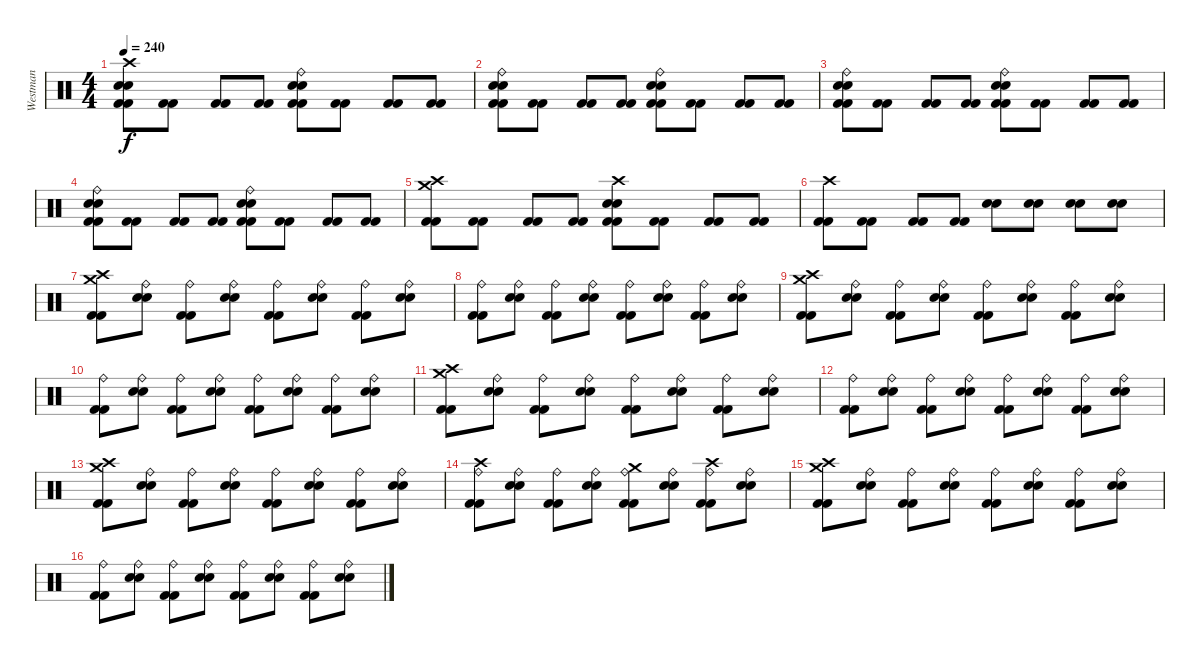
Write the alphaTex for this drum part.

\track ("Westman" "Westman") {instrument percussion}
\staff {score}
\articulation defaults
\ts (4 4)
\tempo 240
\clef neutral
\ks c
("Kick (hit) 2" "Kick (hit) 2" "Electric Snare (hit)" "Snare (hit) 2" "Crash high (hit)").8{dy f} ("Kick (hit) 2" "Kick (hit) 2").8 ("Kick (hit) 2" "Kick (hit) 2").8 ("Kick (hit) 2" "Kick (hit) 2").8 ("Kick (hit) 2" "Kick (hit) 2" "Electric Snare (hit)" "Electric Snare (hit)" "Ride (bell)").8 ("Kick (hit) 2" "Kick (hit) 2").8 ("Kick (hit) 2" "Kick (hit) 2").8 ("Kick (hit) 2" "Kick (hit) 2").8 |
("Kick (hit) 2" "Kick (hit) 2" "Snare (hit) 2" "Electric Snare (hit)" "Ride (bell)").8 ("Kick (hit) 2" "Kick (hit) 2").8 ("Kick (hit) 2" "Kick (hit) 2").8 ("Kick (hit) 2" "Kick (hit) 2").8 ("Kick (hit) 2" "Kick (hit) 2" "Electric Snare (hit)" "Snare (hit) 2" "Ride (bell)").8 ("Kick (hit) 2" "Kick (hit) 2").8 ("Kick (hit) 2" "Kick (hit) 2").8 ("Kick (hit) 2" "Kick (hit) 2").8 |
("Kick (hit) 2" "Kick (hit) 2" "Snare (hit) 2" "Electric Snare (hit)" "Ride (bell)").8 ("Kick (hit) 2" "Kick (hit) 2").8 ("Kick (hit) 2" "Kick (hit) 2").8 ("Kick (hit) 2" "Kick (hit) 2").8 ("Kick (hit) 2" "Kick (hit) 2" "Electric Snare (hit)" "Snare (hit) 2" "Ride (bell)").8 ("Kick (hit) 2" "Kick (hit) 2").8 ("Kick (hit) 2" "Kick (hit) 2").8 ("Kick (hit) 2" "Kick (hit) 2").8 |
("Kick (hit) 2" "Kick (hit) 2" "Snare (hit) 2" "Electric Snare (hit)" "Ride (bell)").8 ("Kick (hit) 2" "Kick (hit) 2").8 ("Kick (hit) 2" "Kick (hit) 2").8 ("Kick (hit) 2" "Kick (hit) 2").8 ("Kick (hit) 2" "Kick (hit) 2" "Electric Snare (hit)" "Snare (hit) 2" "Ride (bell)").8 ("Kick (hit) 2" "Kick (hit) 2").8 ("Kick (hit) 2" "Kick (hit) 2").8 ("Kick (hit) 2" "Kick (hit) 2").8 |
("Kick (hit) 2" "Kick (hit) 2" "Crash high (hit)" "Crash medium (hit)").8 ("Kick (hit) 2" "Kick (hit) 2").8 ("Kick (hit) 2" "Kick (hit) 2").8 ("Kick (hit) 2" "Kick (hit) 2").8 ("Kick (hit) 2" "Kick (hit) 2" "Electric Snare (hit)" "Crash high (hit)" "Snare (hit) 2").8 ("Kick (hit) 2" "Kick (hit) 2").8 ("Kick (hit) 2" "Kick (hit) 2").8 ("Kick (hit) 2" "Kick (hit) 2").8 |
("Kick (hit) 2" "Kick (hit) 2" "Crash high (hit)").8 ("Kick (hit) 2" "Kick (hit) 2").8 ("Kick (hit) 2" "Kick (hit) 2").8 ("Kick (hit) 2" "Kick (hit) 2").8 ("Electric Snare (hit)" "Snare (hit) 2").8 ("Snare (hit) 2" "Electric Snare (hit)").8 ("Snare (hit) 2" "Electric Snare (hit)").8 ("Snare (hit) 2" "Electric Snare (hit)").8 |
("Kick (hit) 2" "Kick (hit) 2" "Crash high (hit)" "Crash medium (hit)").8 ("Electric Snare (hit)" "Snare (hit) 2" "Ride (bell)").8 ("Kick (hit) 2" "Kick (hit) 2" "Ride (bell)").8 ("Electric Snare (hit)" "Snare (hit) 2" "Ride (bell)").8 ("Kick (hit) 2" "Kick (hit) 2" "Ride (bell)").8 ("Electric Snare (hit)" "Snare (hit) 2" "Ride (bell)").8 ("Kick (hit) 2" "Kick (hit) 2" "Ride (bell)").8 ("Electric Snare (hit)" "Snare (hit) 2" "Ride (bell)").8 |
("Kick (hit) 2" "Kick (hit) 2" "Ride (bell)").8 ("Electric Snare (hit)" "Snare (hit) 2" "Ride (bell)").8 ("Kick (hit) 2" "Kick (hit) 2" "Ride (bell)").8 ("Electric Snare (hit)" "Snare (hit) 2" "Ride (bell)").8 ("Kick (hit) 2" "Kick (hit) 2" "Ride (bell)").8 ("Electric Snare (hit)" "Snare (hit) 2" "Ride (bell)").8 ("Kick (hit) 2" "Kick (hit) 2" "Ride (bell)").8 ("Electric Snare (hit)" "Snare (hit) 2" "Ride (bell)").8 |
("Kick (hit) 2" "Kick (hit) 2" "Crash high (hit)" "Crash medium (hit)").8 ("Electric Snare (hit)" "Snare (hit) 2" "Ride (bell)").8 ("Kick (hit) 2" "Kick (hit) 2" "Ride (bell)").8 ("Electric Snare (hit)" "Snare (hit) 2" "Ride (bell)").8 ("Kick (hit) 2" "Kick (hit) 2" "Ride (bell)").8 ("Electric Snare (hit)" "Snare (hit) 2" "Ride (bell)").8 ("Kick (hit) 2" "Kick (hit) 2" "Ride (bell)").8 ("Electric Snare (hit)" "Snare (hit) 2" "Ride (bell)").8 |
("Kick (hit) 2" "Kick (hit) 2" "Ride (bell)").8 ("Electric Snare (hit)" "Snare (hit) 2" "Ride (bell)").8 ("Kick (hit) 2" "Kick (hit) 2" "Ride (bell)").8 ("Electric Snare (hit)" "Snare (hit) 2" "Ride (bell)").8 ("Kick (hit) 2" "Kick (hit) 2" "Ride (bell)").8 ("Electric Snare (hit)" "Snare (hit) 2" "Ride (bell)").8 ("Kick (hit) 2" "Kick (hit) 2" "Ride (bell)").8 ("Electric Snare (hit)" "Snare (hit) 2" "Ride (bell)").8 |
("Kick (hit) 2" "Kick (hit) 2" "Crash high (hit)" "Crash medium (hit)").8 ("Electric Snare (hit)" "Snare (hit) 2" "Ride (bell)").8 ("Kick (hit) 2" "Kick (hit) 2" "Ride (bell)").8 ("Electric Snare (hit)" "Snare (hit) 2" "Ride (bell)").8 ("Kick (hit) 2" "Kick (hit) 2" "Ride (bell)").8 ("Electric Snare (hit)" "Snare (hit) 2" "Ride (bell)").8 ("Kick (hit) 2" "Kick (hit) 2" "Ride (bell)").8 ("Electric Snare (hit)" "Snare (hit) 2" "Ride (bell)").8 |
("Kick (hit) 2" "Kick (hit) 2" "Ride (bell)").8 ("Electric Snare (hit)" "Snare (hit) 2" "Ride (bell)").8 ("Kick (hit) 2" "Kick (hit) 2" "Ride (bell)").8 ("Electric Snare (hit)" "Snare (hit) 2" "Ride (bell)").8 ("Kick (hit) 2" "Kick (hit) 2" "Ride (bell)").8 ("Electric Snare (hit)" "Snare (hit) 2" "Ride (bell)").8 ("Kick (hit) 2" "Kick (hit) 2" "Ride (bell)").8 ("Electric Snare (hit)" "Snare (hit) 2" "Ride (bell)").8 |
("Kick (hit) 2" "Kick (hit) 2" "Crash high (hit)" "Crash medium (hit)").8 ("Electric Snare (hit)" "Snare (hit) 2" "Ride (bell)").8 ("Kick (hit) 2" "Kick (hit) 2" "Ride (bell)").8 ("Electric Snare (hit)" "Snare (hit) 2" "Ride (bell)").8 ("Kick (hit) 2" "Kick (hit) 2" "Ride (bell)").8 ("Electric Snare (hit)" "Snare (hit) 2" "Ride (bell)").8 ("Kick (hit) 2" "Kick (hit) 2" "Ride (bell)").8 ("Electric Snare (hit)" "Snare (hit) 2" "Ride (bell)").8 |
("Kick (hit) 2" "Kick (hit) 2" "Ride (bell)" "Crash high (hit)").8 ("Electric Snare (hit)" "Snare (hit) 2" "Ride (bell)").8 ("Kick (hit) 2" "Kick (hit) 2" "Ride (bell)").8 ("Electric Snare (hit)" "Snare (hit) 2" "Ride (bell)").8 ("Kick (hit) 2" "Kick (hit) 2" "Ride (bell)" "Crash medium (hit)").8 ("Electric Snare (hit)" "Snare (hit) 2" "Ride (bell)").8 ("Kick (hit) 2" "Kick (hit) 2" "Ride (bell)" "Crash high (hit)").8 ("Electric Snare (hit)" "Snare (hit) 2" "Ride (bell)").8 |
("Kick (hit) 2" "Kick (hit) 2" "Crash high (hit)" "Crash medium (hit)").8 ("Electric Snare (hit)" "Snare (hit) 2" "Ride (bell)").8 ("Kick (hit) 2" "Kick (hit) 2" "Ride (bell)").8 ("Electric Snare (hit)" "Snare (hit) 2" "Ride (bell)").8 ("Kick (hit) 2" "Kick (hit) 2" "Ride (bell)").8 ("Electric Snare (hit)" "Snare (hit) 2" "Ride (bell)").8 ("Kick (hit) 2" "Kick (hit) 2" "Ride (bell)").8 ("Electric Snare (hit)" "Snare (hit) 2" "Ride (bell)").8 |
("Kick (hit) 2" "Kick (hit) 2" "Ride (bell)").8 ("Electric Snare (hit)" "Snare (hit) 2" "Ride (bell)").8 ("Kick (hit) 2" "Kick (hit) 2" "Ride (bell)").8 ("Electric Snare (hit)" "Snare (hit) 2" "Ride (bell)").8 ("Kick (hit) 2" "Kick (hit) 2" "Ride (bell)").8 ("Electric Snare (hit)" "Snare (hit) 2" "Ride (bell)").8 ("Kick (hit) 2" "Kick (hit) 2" "Ride (bell)").8 ("Electric Snare (hit)" "Snare (hit) 2" "Ride (bell)").8
